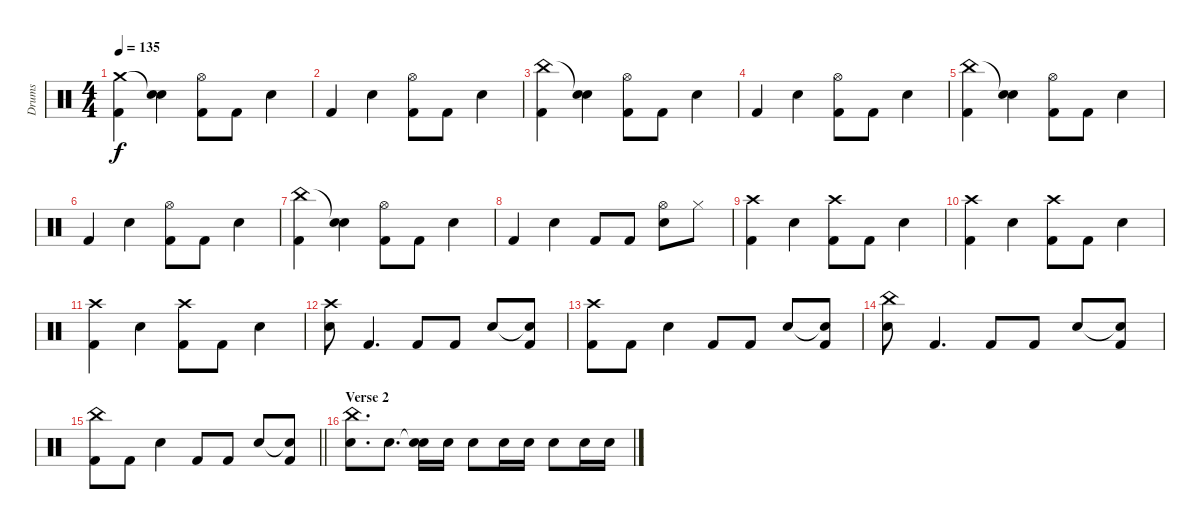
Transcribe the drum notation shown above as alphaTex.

\track ("Drums" "Drums") {instrument percussion}
\staff {score}
\articulation defaults
\ts (4 4)
\tempo 135
\clef neutral
\ks c
("Crash medium (hit)" "Kick (hit) 2").4{dy f} ("Snare (hit)"{t} "Electric Snare (hit)").4 ("Hi-Hat (open)" "Kick (hit) 2").8 "Kick (hit) 2".8 "Electric Snare (hit)".4 |
"Kick (hit) 2".4 "Electric Snare (hit)".4 ("Hi-Hat (open)" "Kick (hit) 2").8 "Kick (hit) 2".8 "Electric Snare (hit)".4 |
("China (hit)" "Kick (hit) 2").4 ("Snare (hit)"{t} "Electric Snare (hit)").4 ("Hi-Hat (open)" "Kick (hit) 2").8 "Kick (hit) 2".8 "Electric Snare (hit)".4 |
"Kick (hit) 2".4 "Electric Snare (hit)".4 ("Hi-Hat (open)" "Kick (hit) 2").8 "Kick (hit) 2".8 "Electric Snare (hit)".4 |
("China (hit)" "Kick (hit) 2").4 ("Snare (hit)"{t} "Electric Snare (hit)").4 ("Hi-Hat (open)" "Kick (hit) 2").8 "Kick (hit) 2".8 "Electric Snare (hit)".4 |
"Kick (hit) 2".4 "Electric Snare (hit)".4 ("Hi-Hat (open)" "Kick (hit) 2").8 "Kick (hit) 2".8 "Electric Snare (hit)".4 |
("China (hit)" "Kick (hit) 2").4 ("Snare (hit)"{t} "Electric Snare (hit)").4 ("Hi-Hat (open)" "Kick (hit) 2").8 "Kick (hit) 2".8 "Electric Snare (hit)".4 |
"Kick (hit) 2".4 "Electric Snare (hit)".4 "Kick (hit) 2".8 "Kick (hit) 2".8 ("Electric Snare (hit)" "Hi-Hat (open)").8 "Hi-Hat (closed)".8 |
("Crash high (hit)" "Kick (hit) 2").4 "Electric Snare (hit)".4 ("Crash high (hit)" "Kick (hit) 2").8 "Kick (hit) 2".8 "Electric Snare (hit)".4 |
("Crash high (hit)" "Kick (hit) 2").4 "Electric Snare (hit)".4 ("Crash high (hit)" "Kick (hit) 2").8 "Kick (hit) 2".8 "Electric Snare (hit)".4 |
("Crash high (hit)" "Kick (hit) 2").4 "Electric Snare (hit)".4 ("Crash high (hit)" "Kick (hit) 2").8 "Kick (hit) 2".8 "Electric Snare (hit)".4 |
("Crash high (hit)" "Electric Snare (hit)").8 "Kick (hit) 2".4{d} "Kick (hit) 2".8 "Kick (hit) 2".8 "Electric Snare (hit)".8 ("Snare (hit)"{t} "Kick (hit) 2").8 |
("Crash high (hit)" "Kick (hit) 2").8 "Kick (hit) 2".8 "Electric Snare (hit)".4 "Kick (hit) 2".8 "Kick (hit) 2".8 "Electric Snare (hit)".8 ("Snare (hit)"{t} "Kick (hit) 2").8 |
("China (hit)" "Electric Snare (hit)").8 "Kick (hit) 2".4{d} "Kick (hit) 2".8 "Kick (hit) 2".8 "Electric Snare (hit)".8 ("Snare (hit)"{t} "Kick (hit) 2").8 |
\barLineRight lightlight
("China (hit)" "Kick (hit) 2").8 "Kick (hit) 2".8 "Electric Snare (hit)".4 "Kick (hit) 2".8 "Kick (hit) 2".8 "Electric Snare (hit)".8 ("Snare (hit)"{t} "Kick (hit) 2").8 |
\section ("" "Verse 2")
("China (hit)" "Electric Snare (hit)").8{d} "Electric Snare (hit)".8{d} ("Snare (hit)"{t} "Electric Snare (hit)").16 "Electric Snare (hit)".16 "Electric Snare (hit)".8 "Electric Snare (hit)".16 "Electric Snare (hit)".16 "Electric Snare (hit)".8 "Electric Snare (hit)".16 "Electric Snare (hit)".16
